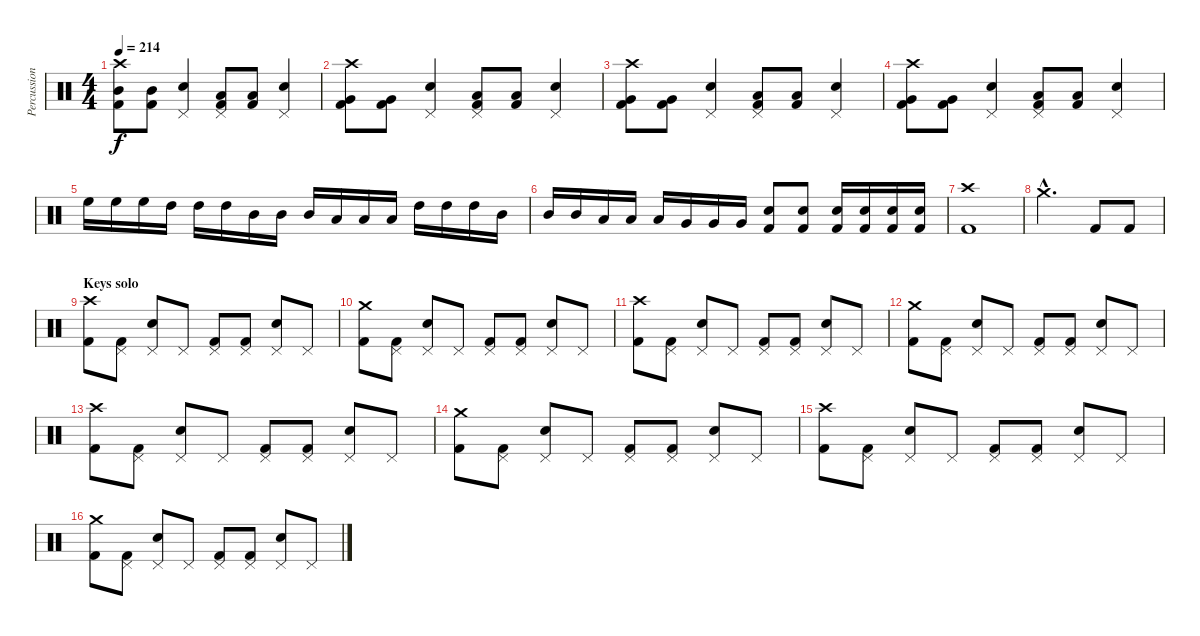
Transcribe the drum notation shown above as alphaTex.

\track ("Percussion" "Percussion") {instrument percussion}
\staff {score}
\articulation defaults
\ts (4 4)
\tempo 214
\clef neutral
\ks c
("Crash high (hit)" "Mid Tom (hit)" "Kick (hit) 2").8{dy f} ("Mid Tom (hit)" "Kick (hit) 2").8 ("Pedal Hi-Hat (hit)" "Snare (hit) 2").4 ("Pedal Hi-Hat (hit)" "Low Tom (hit)" "Kick (hit) 2").8 ("Low Tom (hit)" "Kick (hit) 2").8 ("Pedal Hi-Hat (hit)" "Snare (hit) 2").4 |
("Crash high (hit)" "Very Low Tom (hit)" "Kick (hit) 2").8 ("Very Low Tom (hit)" "Kick (hit) 2").8 ("Pedal Hi-Hat (hit)" "Snare (hit) 2").4 ("Pedal Hi-Hat (hit)" "Low Tom (hit)" "Kick (hit) 2").8 ("Low Tom (hit)" "Kick (hit) 2").8 ("Pedal Hi-Hat (hit)" "Snare (hit) 2").4 |
("Crash high (hit)" "Very Low Tom (hit)" "Kick (hit) 2").8 ("Very Low Tom (hit)" "Kick (hit) 2").8 ("Pedal Hi-Hat (hit)" "Snare (hit) 2").4 ("Pedal Hi-Hat (hit)" "Low Floor Tom (hit)" "Kick (hit) 2").8 ("Low Floor Tom (hit)" "Kick (hit) 2").8 ("Pedal Hi-Hat (hit)" "Snare (hit) 2").4 |
("Crash high (hit)" "Very Low Tom (hit)" "Kick (hit) 2").8 ("Very Low Tom (hit)" "Kick (hit) 2").8 ("Pedal Hi-Hat (hit)" "Snare (hit) 2").4 ("Pedal Hi-Hat (hit)" "Low Tom (hit)" "Kick (hit) 2").8 ("Low Tom (hit)" "Kick (hit) 2").8 ("Pedal Hi-Hat (hit)" "Snare (hit) 2").4 |
"High Floor Tom (hit)".16 "High Floor Tom (hit)".16 "High Floor Tom (hit)".16 "High Tom (hit)".16 "High Tom (hit)".16 "High Tom (hit)".16 "Mid Tom (hit)".16 "Mid Tom (hit)".16 "Mid Tom (hit)".16 "Low Tom (hit)".16 "Low Tom (hit)".16 "Low Tom (hit)".16 "High Tom (hit)".16 "High Tom (hit)".16 "High Tom (hit)".16 "Mid Tom (hit)".16 |
"Mid Tom (hit)".16 "Mid Tom (hit)".16 "Low Tom (hit)".16 "Low Tom (hit)".16 "Low Tom (hit)".16 "Very Low Tom (hit)".16 "Very Low Tom (hit)".16 "Very Low Tom (hit)".16 ("Snare (hit) 2" "Kick (hit) 2").8 ("Snare (hit) 2" "Kick (hit) 2").8 ("Snare (hit) 2" "Kick (hit) 2").16 ("Snare (hit) 2" "Kick (hit) 2").16 ("Snare (hit) 2" "Kick (hit) 2").16 ("Snare (hit) 2" "Kick (hit) 2").16 |
("Crash high (hit)" "Kick (hit) 2").1 |
"Crash medium (hit)"{hac}.2{d} "Kick (hit) 2".8 "Kick (hit) 2".8 |
\section ("" "Keys solo")
("Crash high (hit)" "Kick (hit) 2").8 ("Pedal Hi-Hat (hit)" "Kick (hit) 2").8 ("Pedal Hi-Hat (hit)" "Snare (hit) 2").8 "Pedal Hi-Hat (hit)".8 ("Pedal Hi-Hat (hit)" "Kick (hit) 2").8 ("Pedal Hi-Hat (hit)" "Kick (hit) 2").8 ("Pedal Hi-Hat (hit)" "Snare (hit) 2").8 "Pedal Hi-Hat (hit)".8 |
("Crash medium (hit)" "Kick (hit) 2").8 ("Pedal Hi-Hat (hit)" "Kick (hit) 2").8 ("Pedal Hi-Hat (hit)" "Snare (hit) 2").8 "Pedal Hi-Hat (hit)".8 ("Pedal Hi-Hat (hit)" "Kick (hit) 2").8 ("Pedal Hi-Hat (hit)" "Kick (hit) 2").8 ("Pedal Hi-Hat (hit)" "Snare (hit) 2").8 "Pedal Hi-Hat (hit)".8 |
("Crash high (hit)" "Kick (hit) 2").8 ("Pedal Hi-Hat (hit)" "Kick (hit) 2").8 ("Pedal Hi-Hat (hit)" "Snare (hit) 2").8 "Pedal Hi-Hat (hit)".8 ("Pedal Hi-Hat (hit)" "Kick (hit) 2").8 ("Pedal Hi-Hat (hit)" "Kick (hit) 2").8 ("Pedal Hi-Hat (hit)" "Snare (hit) 2").8 "Pedal Hi-Hat (hit)".8 |
("Crash medium (hit)" "Kick (hit) 2").8 ("Pedal Hi-Hat (hit)" "Kick (hit) 2").8 ("Pedal Hi-Hat (hit)" "Snare (hit) 2").8 "Pedal Hi-Hat (hit)".8 ("Pedal Hi-Hat (hit)" "Kick (hit) 2").8 ("Pedal Hi-Hat (hit)" "Kick (hit) 2").8 ("Pedal Hi-Hat (hit)" "Snare (hit) 2").8 "Pedal Hi-Hat (hit)".8 |
("Crash high (hit)" "Kick (hit) 2").8 ("Pedal Hi-Hat (hit)" "Kick (hit) 2").8 ("Pedal Hi-Hat (hit)" "Snare (hit) 2").8 "Pedal Hi-Hat (hit)".8 ("Pedal Hi-Hat (hit)" "Kick (hit) 2").8 ("Pedal Hi-Hat (hit)" "Kick (hit) 2").8 ("Pedal Hi-Hat (hit)" "Snare (hit) 2").8 "Pedal Hi-Hat (hit)".8 |
("Crash medium (hit)" "Kick (hit) 2").8 ("Pedal Hi-Hat (hit)" "Kick (hit) 2").8 ("Pedal Hi-Hat (hit)" "Snare (hit) 2").8 "Pedal Hi-Hat (hit)".8 ("Pedal Hi-Hat (hit)" "Kick (hit) 2").8 ("Pedal Hi-Hat (hit)" "Kick (hit) 2").8 ("Pedal Hi-Hat (hit)" "Snare (hit) 2").8 "Pedal Hi-Hat (hit)".8 |
("Crash high (hit)" "Kick (hit) 2").8 ("Pedal Hi-Hat (hit)" "Kick (hit) 2").8 ("Pedal Hi-Hat (hit)" "Snare (hit) 2").8 "Pedal Hi-Hat (hit)".8 ("Pedal Hi-Hat (hit)" "Kick (hit) 2").8 ("Pedal Hi-Hat (hit)" "Kick (hit) 2").8 ("Pedal Hi-Hat (hit)" "Snare (hit) 2").8 "Pedal Hi-Hat (hit)".8 |
("Crash medium (hit)" "Kick (hit) 2").8 ("Pedal Hi-Hat (hit)" "Kick (hit) 2").8 ("Pedal Hi-Hat (hit)" "Snare (hit) 2").8 "Pedal Hi-Hat (hit)".8 ("Pedal Hi-Hat (hit)" "Kick (hit) 2").8 ("Pedal Hi-Hat (hit)" "Kick (hit) 2").8 ("Pedal Hi-Hat (hit)" "Snare (hit) 2").8 "Pedal Hi-Hat (hit)".8
